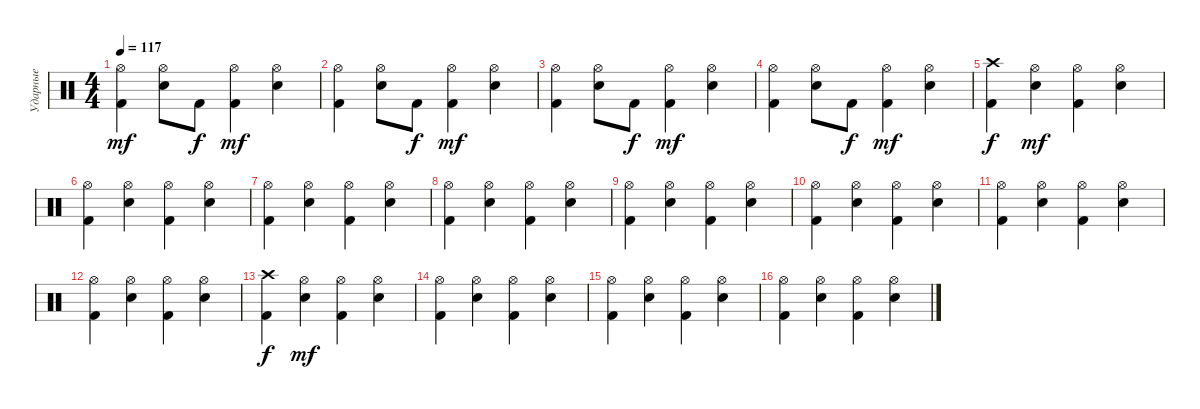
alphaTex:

\track ("Ударные" "Ударные") {instrument percussion}
\staff {score}
\articulation defaults
\ts (4 4)
\tempo 117
\clef neutral
\ks c
("Hi-Hat (open)" "Kick (hit) 2").4{dy mf} ("Hi-Hat (open)" "Electric Snare (hit)").8 "Kick (hit) 2".8{dy f} ("Hi-Hat (open)" "Kick (hit) 2").4{dy mf} ("Hi-Hat (open)" "Electric Snare (hit)").4 |
("Hi-Hat (open)" "Kick (hit) 2").4 ("Hi-Hat (open)" "Electric Snare (hit)").8 "Kick (hit) 2".8{dy f} ("Hi-Hat (open)" "Kick (hit) 2").4{dy mf} ("Hi-Hat (open)" "Electric Snare (hit)").4 |
("Hi-Hat (open)" "Kick (hit) 2").4 ("Hi-Hat (open)" "Electric Snare (hit)").8 "Kick (hit) 2".8{dy f} ("Hi-Hat (open)" "Kick (hit) 2").4{dy mf} ("Hi-Hat (open)" "Electric Snare (hit)").4 |
("Hi-Hat (open)" "Kick (hit) 2").4 ("Hi-Hat (open)" "Electric Snare (hit)").8 "Kick (hit) 2".8{dy f} ("Hi-Hat (open)" "Kick (hit) 2").4{dy mf} ("Hi-Hat (open)" "Electric Snare (hit)").4 |
("Crash high (hit)" "Kick (hit) 2").4{dy f} ("Hi-Hat (open)" "Electric Snare (hit)").4{dy mf} ("Hi-Hat (open)" "Kick (hit) 2").4 ("Hi-Hat (open)" "Electric Snare (hit)").4 |
("Hi-Hat (open)" "Kick (hit) 2").4 ("Hi-Hat (open)" "Electric Snare (hit)").4 ("Hi-Hat (open)" "Kick (hit) 2").4 ("Hi-Hat (open)" "Electric Snare (hit)").4 |
("Hi-Hat (open)" "Kick (hit) 2").4 ("Hi-Hat (open)" "Electric Snare (hit)").4 ("Hi-Hat (open)" "Kick (hit) 2").4 ("Hi-Hat (open)" "Electric Snare (hit)").4 |
("Hi-Hat (open)" "Kick (hit) 2").4 ("Hi-Hat (open)" "Electric Snare (hit)").4 ("Hi-Hat (open)" "Kick (hit) 2").4 ("Hi-Hat (open)" "Electric Snare (hit)").4 |
("Hi-Hat (open)" "Kick (hit) 2").4 ("Hi-Hat (open)" "Electric Snare (hit)").4 ("Hi-Hat (open)" "Kick (hit) 2").4 ("Hi-Hat (open)" "Electric Snare (hit)").4 |
("Hi-Hat (open)" "Kick (hit) 2").4 ("Hi-Hat (open)" "Electric Snare (hit)").4 ("Hi-Hat (open)" "Kick (hit) 2").4 ("Hi-Hat (open)" "Electric Snare (hit)").4 |
("Hi-Hat (open)" "Kick (hit) 2").4 ("Hi-Hat (open)" "Electric Snare (hit)").4 ("Hi-Hat (open)" "Kick (hit) 2").4 ("Hi-Hat (open)" "Electric Snare (hit)").4 |
("Hi-Hat (open)" "Kick (hit) 2").4 ("Hi-Hat (open)" "Electric Snare (hit)").4 ("Hi-Hat (open)" "Kick (hit) 2").4 ("Hi-Hat (open)" "Electric Snare (hit)").4 |
("Crash high (hit)" "Kick (hit) 2").4{dy f} ("Hi-Hat (open)" "Electric Snare (hit)").4{dy mf} ("Hi-Hat (open)" "Kick (hit) 2").4 ("Hi-Hat (open)" "Electric Snare (hit)").4 |
("Hi-Hat (open)" "Kick (hit) 2").4 ("Hi-Hat (open)" "Electric Snare (hit)").4 ("Hi-Hat (open)" "Kick (hit) 2").4 ("Hi-Hat (open)" "Electric Snare (hit)").4 |
("Hi-Hat (open)" "Kick (hit) 2").4 ("Hi-Hat (open)" "Electric Snare (hit)").4 ("Hi-Hat (open)" "Kick (hit) 2").4 ("Hi-Hat (open)" "Electric Snare (hit)").4 |
("Hi-Hat (open)" "Kick (hit) 2").4 ("Hi-Hat (open)" "Electric Snare (hit)").4 ("Hi-Hat (open)" "Kick (hit) 2").4 ("Hi-Hat (open)" "Electric Snare (hit)").4
